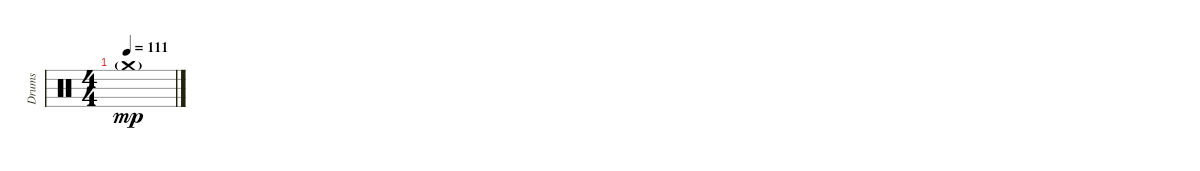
\track ("Drums" "Drums") {instrument percussion}
\staff {score}
\articulation defaults
\ts (4 4)
\tempo 111
\clef neutral
\ks c "Crash medium (hit)"{g}.1{dy mp}
